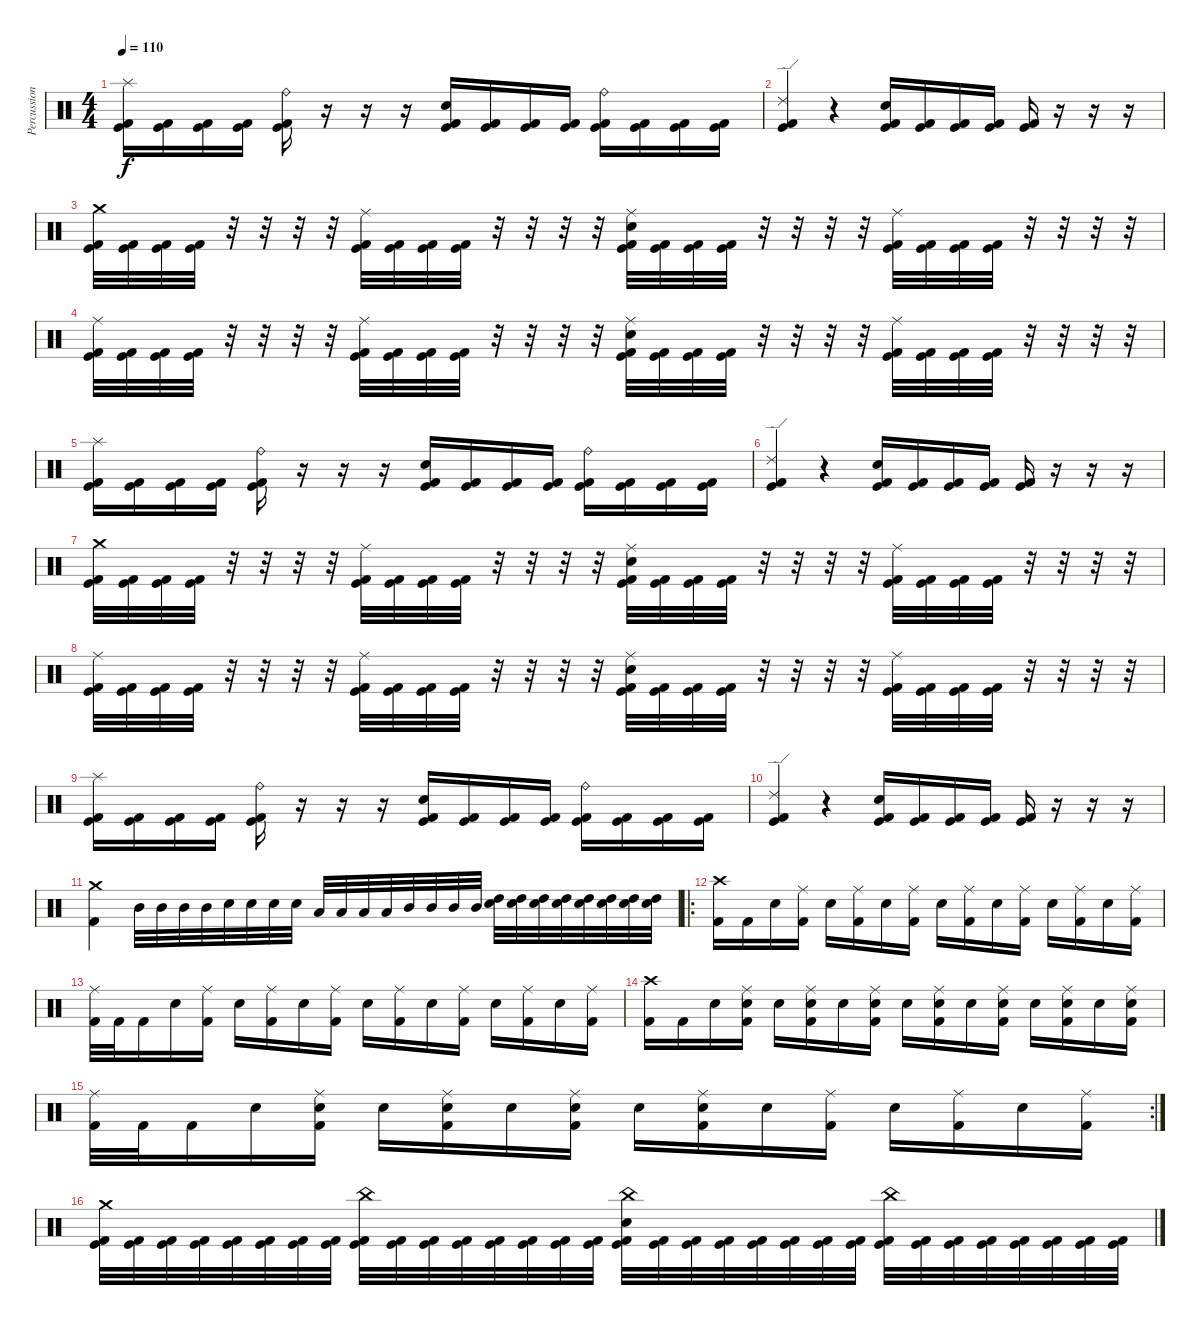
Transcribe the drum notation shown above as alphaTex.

\track ("Percussion" "Percussion") {instrument percussion}
\staff {score}
\articulation defaults
\ts (4 4)
\tempo 110
\clef neutral
\ks c
("Splash (hit)" "Kick (hit)" "Kick (hit) 2").16{dy f} ("Kick (hit)" "Kick (hit) 2").16 ("Kick (hit)" "Kick (hit) 2").16 ("Kick (hit)" "Kick (hit) 2").16 ("Ride (bell)" "Kick (hit)" "Kick (hit) 2").16 r.16 r.16 r.16 ("Electric Snare (hit)" "Kick (hit)" "Kick (hit) 2").16 ("Kick (hit)" "Kick (hit) 2").16 ("Kick (hit)" "Kick (hit) 2").16 ("Kick (hit)" "Kick (hit) 2").16 ("Ride (bell)" "Kick (hit)" "Kick (hit) 2").16 ("Kick (hit)" "Kick (hit) 2").16 ("Kick (hit)" "Kick (hit) 2").16 ("Kick (hit)" "Kick (hit) 2").16 |
("Ride (edge) 2" "Kick (hit)" "Kick (hit) 2").4 r.4 ("Electric Snare (hit)" "Kick (hit)" "Kick (hit) 2").16 ("Kick (hit)" "Kick (hit) 2").16 ("Kick (hit)" "Kick (hit) 2").16 ("Kick (hit)" "Kick (hit) 2").16 ("Kick (hit)" "Kick (hit) 2").16 r.16 r.16 r.16 |
("Crash medium (hit)" "Kick (hit)" "Kick (hit) 2").32 ("Kick (hit)" "Kick (hit) 2").32 ("Kick (hit)" "Kick (hit) 2").32 ("Kick (hit)" "Kick (hit) 2").32 r.32 r.32 r.32 r.32 ("Ride (middle)" "Kick (hit)" "Kick (hit) 2").32 ("Kick (hit)" "Kick (hit) 2").32 ("Kick (hit)" "Kick (hit) 2").32 ("Kick (hit)" "Kick (hit) 2").32 r.32 r.32 r.32 r.32 ("Ride (middle)" "Electric Snare (hit)" "Kick (hit)" "Kick (hit) 2").32 ("Kick (hit)" "Kick (hit) 2").32 ("Kick (hit)" "Kick (hit) 2").32 ("Kick (hit)" "Kick (hit) 2").32 r.32 r.32 r.32 r.32 ("Ride (middle)" "Kick (hit)" "Kick (hit) 2").32 ("Kick (hit)" "Kick (hit) 2").32 ("Kick (hit)" "Kick (hit) 2").32 ("Kick (hit)" "Kick (hit) 2").32 r.32 r.32 r.32 r.32 |
("Ride (middle)" "Kick (hit)" "Kick (hit) 2").32 ("Kick (hit)" "Kick (hit) 2").32 ("Kick (hit)" "Kick (hit) 2").32 ("Kick (hit)" "Kick (hit) 2").32 r.32 r.32 r.32 r.32 ("Ride (middle)" "Kick (hit)" "Kick (hit) 2").32 ("Kick (hit)" "Kick (hit) 2").32 ("Kick (hit)" "Kick (hit) 2").32 ("Kick (hit)" "Kick (hit) 2").32 r.32 r.32 r.32 r.32 ("Ride (middle)" "Electric Snare (hit)" "Kick (hit)" "Kick (hit) 2").32 ("Kick (hit)" "Kick (hit) 2").32 ("Kick (hit)" "Kick (hit) 2").32 ("Kick (hit)" "Kick (hit) 2").32 r.32 r.32 r.32 r.32 ("Ride (middle)" "Kick (hit)" "Kick (hit) 2").32 ("Kick (hit)" "Kick (hit) 2").32 ("Kick (hit)" "Kick (hit) 2").32 ("Kick (hit)" "Kick (hit) 2").32 r.32 r.32 r.32 r.32 |
("Splash (hit)" "Kick (hit)" "Kick (hit) 2").16 ("Kick (hit)" "Kick (hit) 2").16 ("Kick (hit)" "Kick (hit) 2").16 ("Kick (hit)" "Kick (hit) 2").16 ("Ride (bell)" "Kick (hit)" "Kick (hit) 2").16 r.16 r.16 r.16 ("Electric Snare (hit)" "Kick (hit)" "Kick (hit) 2").16 ("Kick (hit)" "Kick (hit) 2").16 ("Kick (hit)" "Kick (hit) 2").16 ("Kick (hit)" "Kick (hit) 2").16 ("Ride (bell)" "Kick (hit)" "Kick (hit) 2").16 ("Kick (hit)" "Kick (hit) 2").16 ("Kick (hit)" "Kick (hit) 2").16 ("Kick (hit)" "Kick (hit) 2").16 |
("Ride (edge) 2" "Kick (hit)" "Kick (hit) 2").4 r.4 ("Electric Snare (hit)" "Kick (hit)" "Kick (hit) 2").16 ("Kick (hit)" "Kick (hit) 2").16 ("Kick (hit)" "Kick (hit) 2").16 ("Kick (hit)" "Kick (hit) 2").16 ("Kick (hit)" "Kick (hit) 2").16 r.16 r.16 r.16 |
("Crash medium (hit)" "Kick (hit)" "Kick (hit) 2").32 ("Kick (hit)" "Kick (hit) 2").32 ("Kick (hit)" "Kick (hit) 2").32 ("Kick (hit)" "Kick (hit) 2").32 r.32 r.32 r.32 r.32 ("Ride (middle)" "Kick (hit)" "Kick (hit) 2").32 ("Kick (hit)" "Kick (hit) 2").32 ("Kick (hit)" "Kick (hit) 2").32 ("Kick (hit)" "Kick (hit) 2").32 r.32 r.32 r.32 r.32 ("Ride (middle)" "Electric Snare (hit)" "Kick (hit)" "Kick (hit) 2").32 ("Kick (hit)" "Kick (hit) 2").32 ("Kick (hit)" "Kick (hit) 2").32 ("Kick (hit)" "Kick (hit) 2").32 r.32 r.32 r.32 r.32 ("Ride (middle)" "Kick (hit)" "Kick (hit) 2").32 ("Kick (hit)" "Kick (hit) 2").32 ("Kick (hit)" "Kick (hit) 2").32 ("Kick (hit)" "Kick (hit) 2").32 r.32 r.32 r.32 r.32 |
("Ride (middle)" "Kick (hit)" "Kick (hit) 2").32 ("Kick (hit)" "Kick (hit) 2").32 ("Kick (hit)" "Kick (hit) 2").32 ("Kick (hit)" "Kick (hit) 2").32 r.32 r.32 r.32 r.32 ("Ride (middle)" "Kick (hit)" "Kick (hit) 2").32 ("Kick (hit)" "Kick (hit) 2").32 ("Kick (hit)" "Kick (hit) 2").32 ("Kick (hit)" "Kick (hit) 2").32 r.32 r.32 r.32 r.32 ("Ride (middle)" "Electric Snare (hit)" "Kick (hit)" "Kick (hit) 2").32 ("Kick (hit)" "Kick (hit) 2").32 ("Kick (hit)" "Kick (hit) 2").32 ("Kick (hit)" "Kick (hit) 2").32 r.32 r.32 r.32 r.32 ("Ride (middle)" "Kick (hit)" "Kick (hit) 2").32 ("Kick (hit)" "Kick (hit) 2").32 ("Kick (hit)" "Kick (hit) 2").32 ("Kick (hit)" "Kick (hit) 2").32 r.32 r.32 r.32 r.32 |
("Splash (hit)" "Kick (hit)" "Kick (hit) 2").16 ("Kick (hit)" "Kick (hit) 2").16 ("Kick (hit)" "Kick (hit) 2").16 ("Kick (hit)" "Kick (hit) 2").16 ("Ride (bell)" "Kick (hit)" "Kick (hit) 2").16 r.16 r.16 r.16 ("Electric Snare (hit)" "Kick (hit)" "Kick (hit) 2").16 ("Kick (hit)" "Kick (hit) 2").16 ("Kick (hit)" "Kick (hit) 2").16 ("Kick (hit)" "Kick (hit) 2").16 ("Ride (bell)" "Kick (hit)" "Kick (hit) 2").16 ("Kick (hit)" "Kick (hit) 2").16 ("Kick (hit)" "Kick (hit) 2").16 ("Kick (hit)" "Kick (hit) 2").16 |
("Ride (edge) 2" "Kick (hit)" "Kick (hit) 2").4 r.4 ("Electric Snare (hit)" "Kick (hit)" "Kick (hit) 2").16 ("Kick (hit)" "Kick (hit) 2").16 ("Kick (hit)" "Kick (hit) 2").16 ("Kick (hit)" "Kick (hit) 2").16 ("Kick (hit)" "Kick (hit) 2").16 r.16 r.16 r.16 |
("Crash medium (hit)" "Kick (hit) 2").4 "Mid Tom (hit)".32 "Mid Tom (hit)".32 "Mid Tom (hit)".32 "Mid Tom (hit)".32 "Electric Snare (hit)".32 "Electric Snare (hit)".32 "Electric Snare (hit)".32 "Electric Snare (hit)".32 "Low Tom (hit)".32 "Low Tom (hit)".32 "Low Tom (hit)".32 "Low Tom (hit)".32 "Mid Tom (hit)".32 "Mid Tom (hit)".32 "Mid Tom (hit)".32 "Mid Tom (hit)".32 ("High Tom (hit)" "Electric Snare (hit)").32 ("High Tom (hit)" "Electric Snare (hit)").32 ("High Tom (hit)" "Electric Snare (hit)").32 ("High Tom (hit)" "Electric Snare (hit)").32 ("High Tom (hit)" "Electric Snare (hit)").32 ("High Tom (hit)" "Electric Snare (hit)").32 ("High Tom (hit)" "Electric Snare (hit)").32 ("High Tom (hit)" "Electric Snare (hit)").32 |
\ro
("Crash high (hit)" "Kick (hit) 2").16 "Kick (hit) 2".16 "Electric Snare (hit)".16 ("Ride (middle)" "Kick (hit) 2").16 "Electric Snare (hit)".16 ("Ride (middle)" "Kick (hit) 2").16 "Electric Snare (hit)".16 ("Ride (middle)" "Kick (hit) 2").16 "Electric Snare (hit)".16 ("Ride (middle)" "Kick (hit) 2").16 "Electric Snare (hit)".16 ("Ride (middle)" "Kick (hit) 2").16 "Electric Snare (hit)".16 ("Ride (middle)" "Kick (hit) 2").16 "Electric Snare (hit)".16 ("Ride (middle)" "Kick (hit) 2").16 |
("Ride (middle)" "Kick (hit) 2").32 "Kick (hit) 2".32 "Kick (hit) 2".16 "Electric Snare (hit)".16 ("Ride (middle)" "Kick (hit) 2").16 "Electric Snare (hit)".16 ("Ride (middle)" "Kick (hit) 2").16 "Electric Snare (hit)".16 ("Ride (middle)" "Kick (hit) 2").16 "Electric Snare (hit)".16 ("Ride (middle)" "Kick (hit) 2").16 "Electric Snare (hit)".16 ("Ride (middle)" "Kick (hit) 2").16 "Electric Snare (hit)".16 ("Ride (middle)" "Kick (hit) 2").16 "Electric Snare (hit)".16 ("Ride (middle)" "Kick (hit) 2").16 |
("Crash high (hit)" "Kick (hit) 2").16 "Kick (hit) 2".16 "Electric Snare (hit)".16 ("Ride (middle)" "Electric Snare (hit)" "Kick (hit) 2").16 "Electric Snare (hit)".16 ("Ride (middle)" "Electric Snare (hit)" "Kick (hit) 2").16 "Electric Snare (hit)".16 ("Ride (middle)" "Electric Snare (hit)" "Kick (hit) 2").16 "Electric Snare (hit)".16 ("Ride (middle)" "Electric Snare (hit)" "Kick (hit) 2").16 "Electric Snare (hit)".16 ("Ride (middle)" "Electric Snare (hit)" "Kick (hit) 2").16 "Electric Snare (hit)".16 ("Ride (middle)" "Electric Snare (hit)" "Kick (hit) 2").16 "Electric Snare (hit)".16 ("Ride (middle)" "Electric Snare (hit)" "Kick (hit) 2").16 |
\rc 2
("Ride (middle)" "Kick (hit) 2").32 "Kick (hit) 2".32 "Kick (hit) 2".16 "Electric Snare (hit)".16 ("Ride (middle)" "Electric Snare (hit)" "Kick (hit) 2").16 "Electric Snare (hit)".16 ("Ride (middle)" "Electric Snare (hit)" "Kick (hit) 2").16 "Electric Snare (hit)".16 ("Ride (middle)" "Electric Snare (hit)" "Kick (hit) 2").16 "Electric Snare (hit)".16 ("Ride (middle)" "Electric Snare (hit)" "Kick (hit) 2").16 "Electric Snare (hit)".16 ("Ride (middle)" "Kick (hit) 2").16 "Electric Snare (hit)".16 ("Ride (middle)" "Kick (hit) 2").16 "Electric Snare (hit)".16 ("Ride (middle)" "Kick (hit) 2").16 |
("Kick (hit)" "Crash medium (hit)" "Kick (hit) 2").32 ("Kick (hit)" "Kick (hit) 2").32 ("Kick (hit)" "Kick (hit) 2").32 ("Kick (hit)" "Kick (hit) 2").32 ("Kick (hit)" "Kick (hit) 2").32 ("Kick (hit)" "Kick (hit) 2").32 ("Kick (hit)" "Kick (hit) 2").32 ("Kick (hit)" "Kick (hit) 2").32 ("Kick (hit)" "China (hit)" "Kick (hit) 2").32 ("Kick (hit)" "Kick (hit) 2").32 ("Kick (hit)" "Kick (hit) 2").32 ("Kick (hit)" "Kick (hit) 2").32 ("Kick (hit)" "Kick (hit) 2").32 ("Kick (hit)" "Kick (hit) 2").32 ("Kick (hit)" "Kick (hit) 2").32 ("Kick (hit)" "Kick (hit) 2").32 ("Kick (hit)" "China (hit)" "Electric Snare (hit)" "Kick (hit) 2").32 ("Kick (hit)" "Kick (hit) 2").32 ("Kick (hit)" "Kick (hit) 2").32 ("Kick (hit)" "Kick (hit) 2").32 ("Kick (hit)" "Kick (hit) 2").32 ("Kick (hit)" "Kick (hit) 2").32 ("Kick (hit)" "Kick (hit) 2").32 ("Kick (hit)" "Kick (hit) 2").32 ("Kick (hit)" "China (hit)" "Kick (hit) 2").32 ("Kick (hit)" "Kick (hit) 2").32 ("Kick (hit)" "Kick (hit) 2").32 ("Kick (hit)" "Kick (hit) 2").32 ("Kick (hit)" "Kick (hit) 2").32 ("Kick (hit)" "Kick (hit) 2").32 ("Kick (hit)" "Kick (hit) 2").32 ("Kick (hit)" "Kick (hit) 2").32
